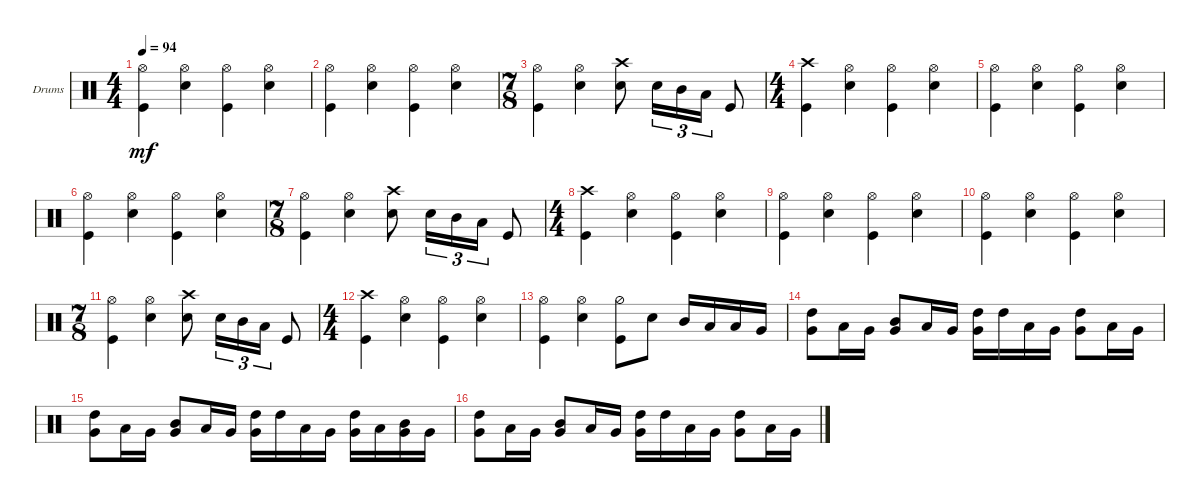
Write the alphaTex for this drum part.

\defaultSystemsLayout 4
\bracketExtendMode groupsimilarinstruments
\firstSystemTrackNameOrientation horizontal
\otherSystemsTrackNameOrientation horizontal
\track ("Drumkit" "Drums") {instrument percussion}
\staff {score}
\articulation defaults
\ts (4 4)
\tempo 94
\clef neutral
\ks c
("Kick (hit)" "Hi-Hat (open)").4{dy mf} ("Snare (hit) 2" "Hi-Hat (open)").4 ("Kick (hit)" "Hi-Hat (open)").4 ("Snare (hit) 2" "Hi-Hat (open)").4 |
("Kick (hit)" "Hi-Hat (open)").4 ("Snare (hit) 2" "Hi-Hat (open)").4 ("Kick (hit)" "Hi-Hat (open)").4 ("Snare (hit) 2" "Hi-Hat (open)").4 |
\ts (7 8)
("Kick (hit)" "Hi-Hat (open)").4 ("Snare (hit) 2" "Hi-Hat (open)").4 ("Snare (hit) 2" "Crash high (hit)").8 "Snare (hit) 2".16{tu (3 2)} "Mid Tom (hit)".16{tu (3 2)} "Low Tom (hit)".16{tu (3 2)} "Kick (hit)".8 |
\ts (4 4)
("Kick (hit)" "Crash high (hit)").4 ("Snare (hit) 2" "Hi-Hat (open)").4 ("Kick (hit)" "Hi-Hat (open)").4 ("Snare (hit) 2" "Hi-Hat (open)").4 |
("Kick (hit)" "Hi-Hat (open)").4 ("Snare (hit) 2" "Hi-Hat (open)").4 ("Kick (hit)" "Hi-Hat (open)").4 ("Snare (hit) 2" "Hi-Hat (open)").4 |
("Kick (hit)" "Hi-Hat (open)").4 ("Snare (hit) 2" "Hi-Hat (open)").4 ("Kick (hit)" "Hi-Hat (open)").4 ("Snare (hit) 2" "Hi-Hat (open)").4 |
\ts (7 8)
("Kick (hit)" "Hi-Hat (open)").4 ("Snare (hit) 2" "Hi-Hat (open)").4 ("Snare (hit) 2" "Crash high (hit)").8 "Snare (hit) 2".16{tu (3 2)} "Mid Tom (hit)".16{tu (3 2)} "Low Tom (hit)".16{tu (3 2)} "Kick (hit)".8 |
\ts (4 4)
("Kick (hit)" "Crash high (hit)").4 ("Snare (hit) 2" "Hi-Hat (open)").4 ("Kick (hit)" "Hi-Hat (open)").4 ("Snare (hit) 2" "Hi-Hat (open)").4 |
("Kick (hit)" "Hi-Hat (open)").4 ("Snare (hit) 2" "Hi-Hat (open)").4 ("Kick (hit)" "Hi-Hat (open)").4 ("Snare (hit) 2" "Hi-Hat (open)").4 |
("Kick (hit)" "Hi-Hat (open)").4 ("Snare (hit) 2" "Hi-Hat (open)").4 ("Kick (hit)" "Hi-Hat (open)").4 ("Snare (hit) 2" "Hi-Hat (open)").4 |
\ts (7 8)
("Kick (hit)" "Hi-Hat (open)").4 ("Snare (hit) 2" "Hi-Hat (open)").4 ("Snare (hit) 2" "Crash high (hit)").8 "Snare (hit) 2".16{tu (3 2)} "Mid Tom (hit)".16{tu (3 2)} "Low Tom (hit)".16{tu (3 2)} "Kick (hit)".8 |
\ts (4 4)
("Kick (hit)" "Crash high (hit)").4 ("Snare (hit) 2" "Hi-Hat (open)").4 ("Kick (hit)" "Hi-Hat (open)").4 ("Snare (hit) 2" "Hi-Hat (open)").4 |
("Kick (hit)" "Hi-Hat (open)").4 ("Snare (hit) 2" "Hi-Hat (open)").4 ("Kick (hit)" "Hi-Hat (half)").8 "Snare (hit) 2".8 "Mid Tom (hit)".16 "Low Tom (hit)".16 "Low Tom (hit)".16 "Very Low Tom (hit)".16 |
("Very Low Tom (hit)" "High Tom (hit)").8 "Low Tom (hit)".16 "Very Low Tom (hit)".16 ("Very Low Tom (hit)" "Mid Tom (hit)").8 "Low Tom (hit)".16 "Very Low Tom (hit)".16 ("Very Low Tom (hit)" "High Tom (hit)").16 "High Tom (hit)".16 "Low Tom (hit)".16 "Very Low Tom (hit)".16 ("Very Low Tom (hit)" "High Tom (hit)").8 "Low Tom (hit)".16 "Very Low Tom (hit)".16 |
("Very Low Tom (hit)" "High Tom (hit)").8 "Low Tom (hit)".16 "Very Low Tom (hit)".16 ("Very Low Tom (hit)" "Mid Tom (hit)").8 "Low Tom (hit)".16 "Very Low Tom (hit)".16 ("Very Low Tom (hit)" "High Tom (hit)").16 "High Tom (hit)".16 "Low Tom (hit)".16 "Very Low Tom (hit)".16 ("Very Low Tom (hit)" "High Tom (hit)").16 "Low Tom (hit)".16 ("Very Low Tom (hit)" "Mid Tom (hit)").16 "Very Low Tom (hit)".16 |
("Very Low Tom (hit)" "High Tom (hit)").8 "Low Tom (hit)".16 "Very Low Tom (hit)".16 ("Very Low Tom (hit)" "Mid Tom (hit)").8 "Low Tom (hit)".16 "Very Low Tom (hit)".16 ("Very Low Tom (hit)" "High Tom (hit)").16 "High Tom (hit)".16 "Low Tom (hit)".16 "Very Low Tom (hit)".16 ("Very Low Tom (hit)" "High Tom (hit)").8 "Low Tom (hit)".16 "Very Low Tom (hit)".16
